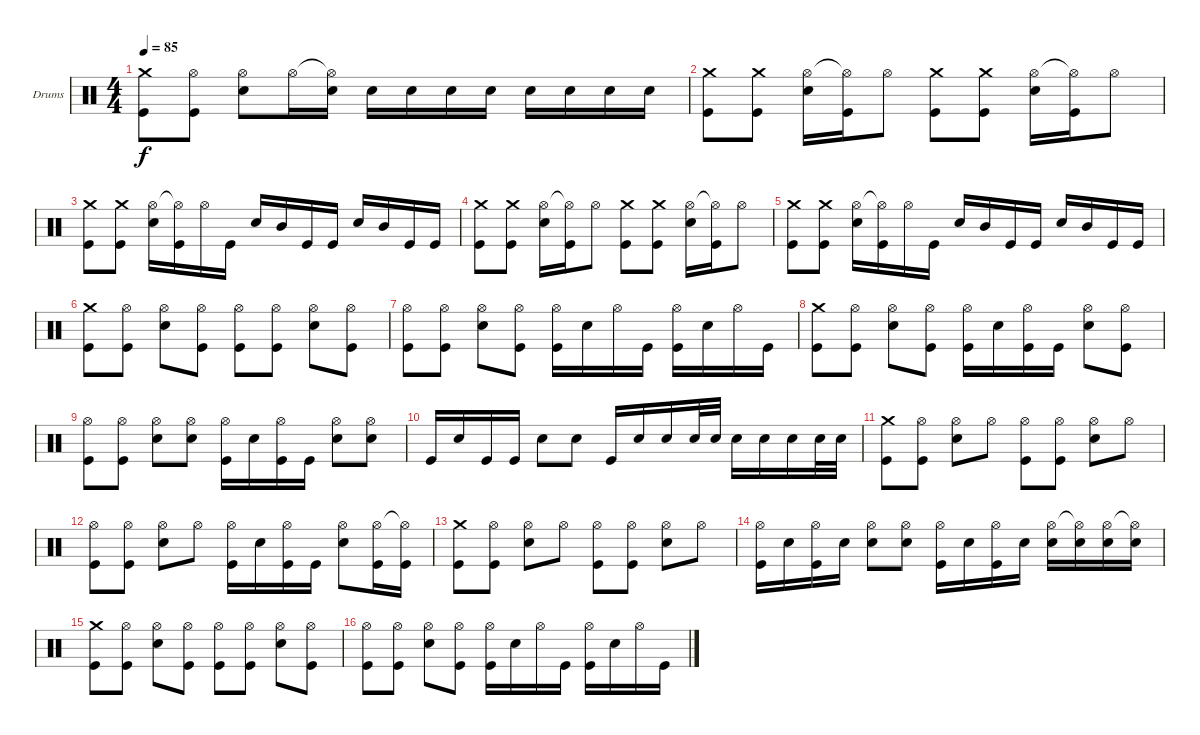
\defaultSystemsLayout 4
\bracketExtendMode groupsimilarinstruments
\firstSystemTrackNameOrientation horizontal
\otherSystemsTrackNameOrientation horizontal
\track ("Drumkit" "Drums") {instrument percussion}
\staff {score}
\articulation defaults
\ts (4 4)
\tempo 85
\clef neutral
\scale
0.333333
\ks c
("Crash medium (hit)" "Kick (hit)").8{dy f} ("Hi-Hat (open)" "Kick (hit)").8 ("Hi-Hat (open)" "Snare (hit) 2").8 "Hi-Hat (open)".16 ("Hi-Hat (open)"{t} "Snare (hit) 2").16 "Snare (hit) 2".16 "Snare (hit) 2".16 "Snare (hit) 2".16 "Snare (hit) 2".16 "Snare (hit) 2".16 "Snare (hit) 2".16 "Snare (hit) 2".16 "Snare (hit) 2".16 |
\scale
0.333333 ("Crash medium (hit)" "Kick (hit)").8 ("Crash medium (hit)" "Kick (hit)").8 ("Hi-Hat (open)" "Snare (hit) 2").16 ("Hi-Hat (open)"{t} "Kick (hit)").16 "Hi-Hat (open)".8 ("Crash medium (hit)" "Kick (hit)").8 ("Crash medium (hit)" "Kick (hit)").8 ("Hi-Hat (open)" "Snare (hit) 2").16 ("Hi-Hat (open)"{t} "Kick (hit)").16 "Hi-Hat (open)".8 |
\scale
0.333333 ("Crash medium (hit)" "Kick (hit)").8 ("Crash medium (hit)" "Kick (hit)").8 ("Hi-Hat (open)" "Snare (hit) 2").16 ("Hi-Hat (open)"{t} "Kick (hit)").16 "Hi-Hat (open)".16 "Kick (hit)".16 "Snare (hit) 2".16 "Mid Tom (hit)".16 "Kick (hit)".16 "Kick (hit)".16 "Snare (hit) 2".16 "Mid Tom (hit)".16 "Kick (hit)".16 "Kick (hit)".16 |
\scale
0.333333 ("Crash medium (hit)" "Kick (hit)").8 ("Crash medium (hit)" "Kick (hit)").8 ("Hi-Hat (open)" "Snare (hit) 2").16 ("Hi-Hat (open)"{t} "Kick (hit)").16 "Hi-Hat (open)".8 ("Crash medium (hit)" "Kick (hit)").8 ("Crash medium (hit)" "Kick (hit)").8 ("Hi-Hat (open)" "Snare (hit) 2").16 ("Hi-Hat (open)"{t} "Kick (hit)").16 "Hi-Hat (open)".8 |
\scale
0.333333 ("Crash medium (hit)" "Kick (hit)").8 ("Crash medium (hit)" "Kick (hit)").8 ("Hi-Hat (open)" "Snare (hit) 2").16 ("Hi-Hat (open)"{t} "Kick (hit)").16 "Hi-Hat (open)".16 "Kick (hit)".16 "Snare (hit) 2".16 "Mid Tom (hit)".16 "Kick (hit)".16 "Kick (hit)".16 "Snare (hit) 2".16 "Mid Tom (hit)".16 "Kick (hit)".16 "Kick (hit)".16 |
\scale
0.333333 ("Crash medium (hit)" "Kick (hit)").8 ("Hi-Hat (open)" "Kick (hit)").8 ("Hi-Hat (open)" "Snare (hit) 2").8 ("Hi-Hat (open)" "Kick (hit)").8 ("Hi-Hat (open)" "Kick (hit)").8 ("Hi-Hat (open)" "Kick (hit)").8 ("Hi-Hat (open)" "Snare (hit) 2").8 ("Hi-Hat (open)" "Kick (hit)").8 |
\scale
0.333333 ("Hi-Hat (open)" "Kick (hit)").8 ("Hi-Hat (open)" "Kick (hit)").8 ("Hi-Hat (open)" "Snare (hit) 2").8 ("Hi-Hat (open)" "Kick (hit)").8 ("Hi-Hat (open)" "Kick (hit)").16 "Snare (hit) 2".16 "Hi-Hat (open)".16 "Kick (hit)".16 ("Hi-Hat (open)" "Kick (hit)").16 "Snare (hit) 2".16 "Hi-Hat (open)".16 "Kick (hit)".16 |
\scale
0.333333 ("Crash medium (hit)" "Kick (hit)").8 ("Hi-Hat (open)" "Kick (hit)").8 ("Hi-Hat (open)" "Snare (hit) 2").8 ("Hi-Hat (open)" "Kick (hit)").8 ("Hi-Hat (open)" "Kick (hit)").16 "Snare (hit) 2".16 ("Hi-Hat (open)" "Kick (hit)").16 "Kick (hit)".16 ("Hi-Hat (open)" "Snare (hit) 2").8 ("Hi-Hat (open)" "Kick (hit)").8 |
\scale
0.333333 ("Hi-Hat (open)" "Kick (hit)").8 ("Hi-Hat (open)" "Kick (hit)").8 ("Hi-Hat (open)" "Snare (hit) 2").8 ("Hi-Hat (open)" "Snare (hit) 2").8 ("Hi-Hat (open)" "Kick (hit)").16 "Snare (hit) 2".16 ("Hi-Hat (open)" "Kick (hit)").16 "Kick (hit)".16 ("Hi-Hat (open)" "Snare (hit) 2").8 ("Hi-Hat (open)" "Snare (hit) 2").8 |
\scale
0.333333 "Kick (hit)".16 "Snare (hit) 2".16 "Kick (hit)".16 "Kick (hit)".16 "Snare (hit) 2".8 "Snare (hit) 2".8 "Kick (hit)".16 "Snare (hit) 2".16 "Snare (hit) 2".16 "Snare (hit) 2".32 "Snare (hit) 2".32 "Snare (hit) 2".16 "Snare (hit) 2".16 "Snare (hit) 2".16 "Snare (hit) 2".32 "Snare (hit) 2".32 |
\scale
0.333333 ("Crash medium (hit)" "Kick (hit)").8 ("Hi-Hat (open)" "Kick (hit)").8 ("Hi-Hat (open)" "Snare (hit) 2").8 "Hi-Hat (open)".8 ("Hi-Hat (open)" "Kick (hit)").8 ("Hi-Hat (open)" "Kick (hit)").8 ("Hi-Hat (open)" "Snare (hit) 2").8 "Hi-Hat (open)".8 |
\scale
0.333333 ("Hi-Hat (open)" "Kick (hit)").8 ("Hi-Hat (open)" "Kick (hit)").8 ("Hi-Hat (open)" "Snare (hit) 2").8 "Hi-Hat (open)".8 ("Hi-Hat (open)" "Kick (hit)").16 "Snare (hit) 2".16 ("Hi-Hat (open)" "Kick (hit)").16 "Kick (hit)".16 ("Hi-Hat (open)" "Snare (hit) 2").8 ("Hi-Hat (open)" "Kick (hit)").16 ("Hi-Hat (open)"{t} "Kick (hit)").16 |
\scale
0.333333 ("Crash medium (hit)" "Kick (hit)").8 ("Hi-Hat (open)" "Kick (hit)").8 ("Hi-Hat (open)" "Snare (hit) 2").8 "Hi-Hat (open)".8 ("Hi-Hat (open)" "Kick (hit)").8 ("Hi-Hat (open)" "Kick (hit)").8 ("Hi-Hat (open)" "Snare (hit) 2").8 "Hi-Hat (open)".8 |
\scale
0.333333 ("Hi-Hat (open)" "Kick (hit)").16 "Snare (hit) 2".16 ("Hi-Hat (open)" "Kick (hit)").16 "Snare (hit) 2".16 ("Hi-Hat (open)" "Snare (hit) 2").8 ("Hi-Hat (open)" "Snare (hit) 2").8 ("Hi-Hat (open)" "Kick (hit)").16 "Snare (hit) 2".16 ("Hi-Hat (open)" "Kick (hit)").16 "Snare (hit) 2".16 ("Hi-Hat (open)" "Snare (hit) 2").16 ("Hi-Hat (open)"{t} "Snare (hit) 2").16 ("Hi-Hat (open)" "Snare (hit) 2").16 ("Hi-Hat (open)"{t} "Snare (hit) 2").16 |
\scale
0.333333 ("Crash medium (hit)" "Kick (hit)").8 ("Hi-Hat (open)" "Kick (hit)").8 ("Hi-Hat (open)" "Snare (hit) 2").8 ("Hi-Hat (open)" "Kick (hit)").8 ("Hi-Hat (open)" "Kick (hit)").8 ("Hi-Hat (open)" "Kick (hit)").8 ("Hi-Hat (open)" "Snare (hit) 2").8 ("Hi-Hat (open)" "Kick (hit)").8 |
\scale
0.333333 ("Hi-Hat (open)" "Kick (hit)").8 ("Hi-Hat (open)" "Kick (hit)").8 ("Hi-Hat (open)" "Snare (hit) 2").8 ("Hi-Hat (open)" "Kick (hit)").8 ("Hi-Hat (open)" "Kick (hit)").16 "Snare (hit) 2".16 "Hi-Hat (open)".16 "Kick (hit)".16 ("Hi-Hat (open)" "Kick (hit)").16 "Snare (hit) 2".16 "Hi-Hat (open)".16 "Kick (hit)".16
